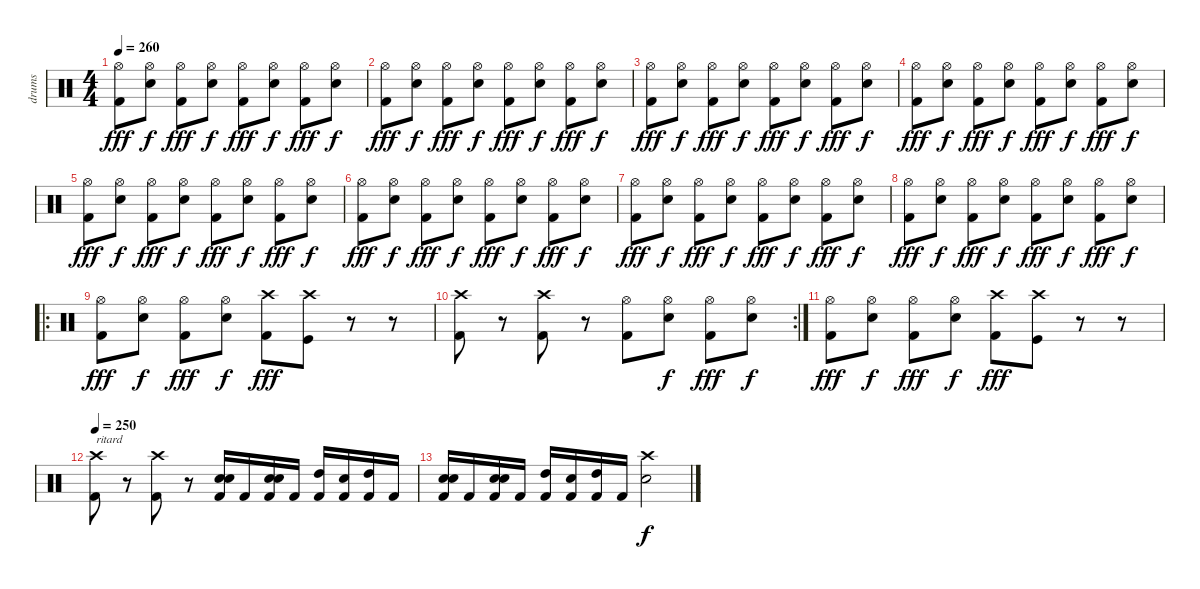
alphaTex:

\track ("drums" "drums") {instrument percussion}
\staff {score}
\articulation defaults
\ts (4 4)
\tempo 260
\clef neutral
\ks c
("Hi-Hat (open)" "Kick (hit) 2").8{dy fff} ("Hi-Hat (open)" "Snare (hit) 2").8{dy f} ("Hi-Hat (open)" "Kick (hit) 2").8{dy fff} ("Hi-Hat (open)" "Snare (hit) 2").8{dy f} ("Hi-Hat (open)" "Kick (hit) 2").8{dy fff} ("Hi-Hat (open)" "Snare (hit) 2").8{dy f} ("Hi-Hat (open)" "Kick (hit) 2").8{dy fff} ("Hi-Hat (open)" "Snare (hit) 2").8{dy f} |
("Hi-Hat (open)" "Kick (hit) 2").8{dy fff} ("Hi-Hat (open)" "Snare (hit) 2").8{dy f} ("Hi-Hat (open)" "Kick (hit) 2").8{dy fff} ("Hi-Hat (open)" "Snare (hit) 2").8{dy f} ("Hi-Hat (open)" "Kick (hit) 2").8{dy fff} ("Hi-Hat (open)" "Snare (hit) 2").8{dy f} ("Hi-Hat (open)" "Kick (hit) 2").8{dy fff} ("Hi-Hat (open)" "Snare (hit) 2").8{dy f} |
("Hi-Hat (open)" "Kick (hit) 2").8{dy fff} ("Hi-Hat (open)" "Snare (hit) 2").8{dy f} ("Hi-Hat (open)" "Kick (hit) 2").8{dy fff} ("Hi-Hat (open)" "Snare (hit) 2").8{dy f} ("Hi-Hat (open)" "Kick (hit) 2").8{dy fff} ("Hi-Hat (open)" "Snare (hit) 2").8{dy f} ("Hi-Hat (open)" "Kick (hit) 2").8{dy fff} ("Hi-Hat (open)" "Snare (hit) 2").8{dy f} |
("Hi-Hat (open)" "Kick (hit) 2").8{dy fff} ("Hi-Hat (open)" "Snare (hit) 2").8{dy f} ("Hi-Hat (open)" "Kick (hit) 2").8{dy fff} ("Hi-Hat (open)" "Snare (hit) 2").8{dy f} ("Hi-Hat (open)" "Kick (hit) 2").8{dy fff} ("Hi-Hat (open)" "Snare (hit) 2").8{dy f} ("Hi-Hat (open)" "Kick (hit) 2").8{dy fff} ("Hi-Hat (open)" "Snare (hit) 2").8{dy f} |
("Hi-Hat (open)" "Kick (hit) 2").8{dy fff} ("Hi-Hat (open)" "Snare (hit) 2").8{dy f} ("Hi-Hat (open)" "Kick (hit) 2").8{dy fff} ("Hi-Hat (open)" "Snare (hit) 2").8{dy f} ("Hi-Hat (open)" "Kick (hit) 2").8{dy fff} ("Hi-Hat (open)" "Snare (hit) 2").8{dy f} ("Hi-Hat (open)" "Kick (hit) 2").8{dy fff} ("Hi-Hat (open)" "Snare (hit) 2").8{dy f} |
("Hi-Hat (open)" "Kick (hit) 2").8{dy fff} ("Hi-Hat (open)" "Snare (hit) 2").8{dy f} ("Hi-Hat (open)" "Kick (hit) 2").8{dy fff} ("Hi-Hat (open)" "Snare (hit) 2").8{dy f} ("Hi-Hat (open)" "Kick (hit) 2").8{dy fff} ("Hi-Hat (open)" "Snare (hit) 2").8{dy f} ("Hi-Hat (open)" "Kick (hit) 2").8{dy fff} ("Hi-Hat (open)" "Snare (hit) 2").8{dy f} |
("Hi-Hat (open)" "Kick (hit) 2").8{dy fff} ("Hi-Hat (open)" "Snare (hit) 2").8{dy f} ("Hi-Hat (open)" "Kick (hit) 2").8{dy fff} ("Hi-Hat (open)" "Snare (hit) 2").8{dy f} ("Hi-Hat (open)" "Kick (hit) 2").8{dy fff} ("Hi-Hat (open)" "Snare (hit) 2").8{dy f} ("Hi-Hat (open)" "Kick (hit) 2").8{dy fff} ("Hi-Hat (open)" "Snare (hit) 2").8{dy f} |
("Hi-Hat (open)" "Kick (hit) 2").8{dy fff} ("Hi-Hat (open)" "Snare (hit) 2").8{dy f} ("Hi-Hat (open)" "Kick (hit) 2").8{dy fff} ("Hi-Hat (open)" "Snare (hit) 2").8{dy f} ("Hi-Hat (open)" "Kick (hit) 2").8{dy fff} ("Hi-Hat (open)" "Snare (hit) 2").8{dy f} ("Hi-Hat (open)" "Kick (hit) 2").8{dy fff} ("Hi-Hat (open)" "Snare (hit) 2").8{dy f} |
\ro
("Hi-Hat (open)" "Kick (hit) 2").8{dy fff} ("Hi-Hat (open)" "Snare (hit) 2").8{dy f} ("Hi-Hat (open)" "Kick (hit) 2").8{dy fff} ("Hi-Hat (open)" "Snare (hit) 2").8{dy f} ("Crash high (hit)" "Kick (hit) 2").8{dy fff} ("Crash high (hit)" "Kick (hit)").8 r.8 r.8 |
\rc 2
("Crash high (hit)" "Kick (hit) 2").8 r.8 ("Crash high (hit)" "Kick (hit) 2").8 r.8 ("Hi-Hat (open)" "Kick (hit) 2").8 ("Hi-Hat (open)" "Snare (hit) 2").8{dy f} ("Hi-Hat (open)" "Kick (hit) 2").8{dy fff} ("Hi-Hat (open)" "Snare (hit) 2").8{dy f} |
("Hi-Hat (open)" "Kick (hit) 2").8{dy fff} ("Hi-Hat (open)" "Snare (hit) 2").8{dy f} ("Hi-Hat (open)" "Kick (hit) 2").8{dy fff} ("Hi-Hat (open)" "Snare (hit) 2").8{dy f} ("Crash high (hit)" "Kick (hit) 2").8{dy fff} ("Crash high (hit)" "Kick (hit)").8 r.8 r.8 |
\tempo 250
("Crash high (hit)" "Kick (hit) 2").8{txt "ritard"} r.8 ("Crash high (hit)" "Kick (hit) 2").8 r.8 ("Snare (hit) 2" "Snare (hit) 2" "Kick (hit) 2").16 "Kick (hit) 2".16 ("Snare (hit) 2" "Snare (hit) 2" "Kick (hit) 2").16 "Kick (hit) 2".16 ("High Tom (hit)" "Kick (hit) 2").16 ("Snare (hit) 2" "Kick (hit) 2").16 ("High Tom (hit)" "Kick (hit) 2").16 "Kick (hit) 2".16 |
("Snare (hit) 2" "Snare (hit) 2" "Kick (hit) 2").16 "Kick (hit) 2".16 ("Snare (hit) 2" "Snare (hit) 2" "Kick (hit) 2").16 "Kick (hit) 2".16 ("High Tom (hit)" "Kick (hit) 2").16 ("Snare (hit) 2" "Kick (hit) 2").16 ("High Tom (hit)" "Kick (hit) 2").16 "Kick (hit) 2".16 ("Crash high (hit)" "Snare (hit) 2").2{dy f}
